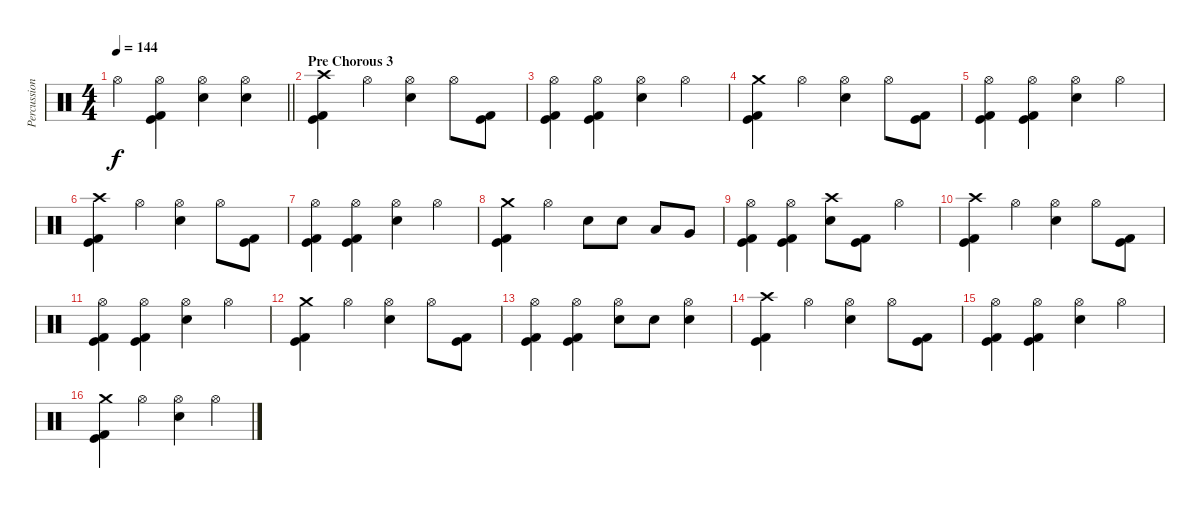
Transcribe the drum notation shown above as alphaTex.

\track ("Percussion" "Percussion") {instrument percussion}
\staff {score}
\articulation defaults
\ts (4 4)
\tempo 144
\clef neutral
\barLineRight lightlight
\ks c "Hi-Hat (open)".4{dy f}
("Hi-Hat (open)" "Kick (hit)" "Kick (hit) 2").4 ("Hi-Hat (open)" "Electric Snare (hit)").4 ("Hi-Hat (open)" "Electric Snare (hit)").4 |
\section ("" "Pre Chorous 3")
("Crash high (hit)" "Kick (hit)" "Kick (hit) 2").4 "Hi-Hat (open)".4 ("Hi-Hat (open)" "Electric Snare (hit)").4 "Hi-Hat (open)".8 ("Kick (hit)" "Kick (hit) 2").8 |
("Hi-Hat (open)" "Kick (hit)" "Kick (hit) 2").4 ("Hi-Hat (open)" "Kick (hit)" "Kick (hit) 2").4 ("Hi-Hat (open)" "Electric Snare (hit)").4 "Hi-Hat (open)".4 |
("Crash medium (hit)" "Kick (hit)" "Kick (hit) 2").4 "Hi-Hat (open)".4 ("Hi-Hat (open)" "Electric Snare (hit)").4 "Hi-Hat (open)".8 ("Kick (hit)" "Kick (hit) 2").8 |
("Hi-Hat (open)" "Kick (hit)" "Kick (hit) 2").4 ("Hi-Hat (open)" "Kick (hit)" "Kick (hit) 2").4 ("Hi-Hat (open)" "Electric Snare (hit)").4 "Hi-Hat (open)".4 |
("Crash high (hit)" "Kick (hit)" "Kick (hit) 2").4 "Hi-Hat (open)".4 ("Hi-Hat (open)" "Electric Snare (hit)").4 "Hi-Hat (open)".8 ("Kick (hit)" "Kick (hit) 2").8 |
("Hi-Hat (open)" "Kick (hit)" "Kick (hit) 2").4 ("Hi-Hat (open)" "Kick (hit)" "Kick (hit) 2").4 ("Hi-Hat (open)" "Electric Snare (hit)").4 "Hi-Hat (open)".4 |
("Crash medium (hit)" "Kick (hit)" "Kick (hit) 2").4 "Hi-Hat (open)".4 "Electric Snare (hit)".8 "Electric Snare (hit)".8 "Low Tom (hit)".8 "Very Low Tom (hit)".8 |
("Hi-Hat (open)" "Kick (hit)" "Kick (hit) 2").4 ("Hi-Hat (open)" "Kick (hit)" "Kick (hit) 2").4 ("Crash high (hit)" "Electric Snare (hit)").8 ("Kick (hit)" "Kick (hit) 2").8 "Hi-Hat (open)".4 |
("Crash high (hit)" "Kick (hit)" "Kick (hit) 2").4 "Hi-Hat (open)".4 ("Hi-Hat (open)" "Electric Snare (hit)").4 "Hi-Hat (open)".8 ("Kick (hit)" "Kick (hit) 2").8 |
("Hi-Hat (open)" "Kick (hit)" "Kick (hit) 2").4 ("Hi-Hat (open)" "Kick (hit)" "Kick (hit) 2").4 ("Hi-Hat (open)" "Electric Snare (hit)").4 "Hi-Hat (open)".4 |
("Crash medium (hit)" "Kick (hit)" "Kick (hit) 2").4 "Hi-Hat (open)".4 ("Hi-Hat (open)" "Electric Snare (hit)").4 "Hi-Hat (open)".8 ("Kick (hit)" "Kick (hit) 2").8 |
("Hi-Hat (open)" "Kick (hit)" "Kick (hit) 2").4 ("Hi-Hat (open)" "Kick (hit)" "Kick (hit) 2").4 ("Hi-Hat (open)" "Electric Snare (hit)").8 "Electric Snare (hit)".8 ("Hi-Hat (open)" "Electric Snare (hit)").4 |
("Crash high (hit)" "Kick (hit)" "Kick (hit) 2").4 "Hi-Hat (open)".4 ("Hi-Hat (open)" "Electric Snare (hit)").4 "Hi-Hat (open)".8 ("Kick (hit)" "Kick (hit) 2").8 |
("Hi-Hat (open)" "Kick (hit)" "Kick (hit) 2").4 ("Hi-Hat (open)" "Kick (hit)" "Kick (hit) 2").4 ("Hi-Hat (open)" "Electric Snare (hit)").4 "Hi-Hat (open)".4 |
("Crash medium (hit)" "Kick (hit)" "Kick (hit) 2").4 "Hi-Hat (open)".4 ("Hi-Hat (open)" "Electric Snare (hit)").4 "Hi-Hat (open)".4
